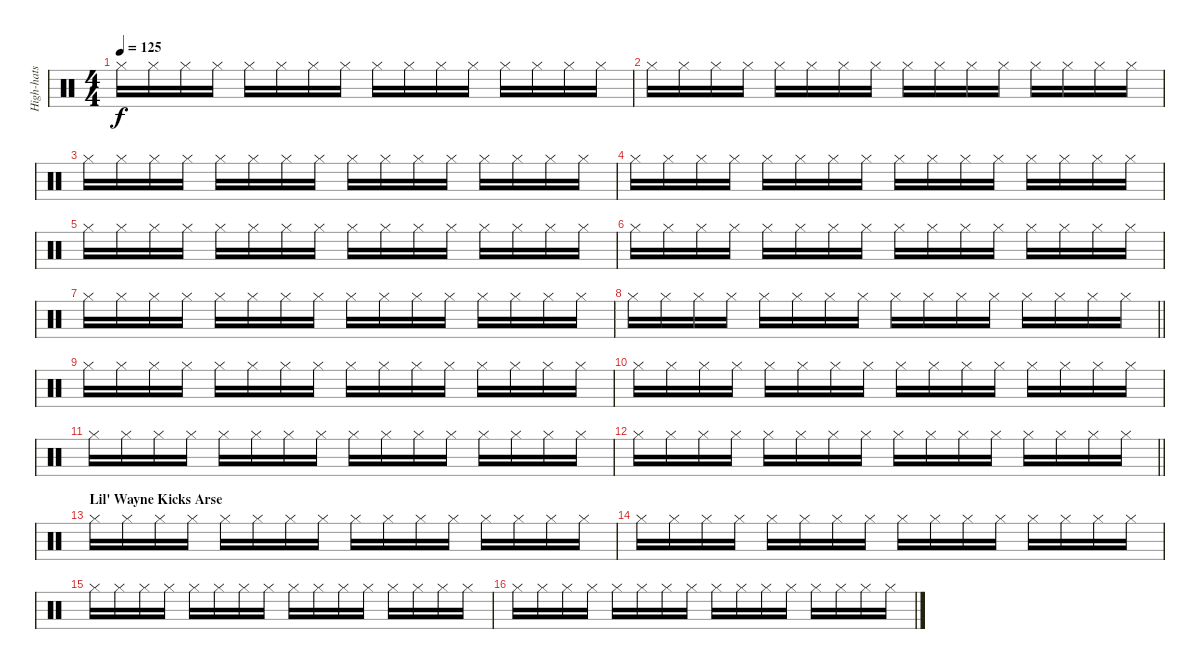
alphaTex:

\track ("High-hats" "High-hats") {instrument percussion}
\staff {score}
\articulation defaults
\ts (4 4)
\tempo 125
\clef neutral
\ks c "Hi-Hat (closed)".16{dy f} "Hi-Hat (closed)".16 "Hi-Hat (closed)".16 "Hi-Hat (closed)".16 "Hi-Hat (closed)".16 "Hi-Hat (closed)".16 "Hi-Hat (closed)".16 "Hi-Hat (closed)".16 "Hi-Hat (closed)".16 "Hi-Hat (closed)".16 "Hi-Hat (closed)".16 "Hi-Hat (closed)".16 "Hi-Hat (closed)".16 "Hi-Hat (closed)".16 "Hi-Hat (closed)".16 "Hi-Hat (closed)".16
|
"Hi-Hat (closed)".16 "Hi-Hat (closed)".16 "Hi-Hat (closed)".16 "Hi-Hat (closed)".16 "Hi-Hat (closed)".16 "Hi-Hat (closed)".16 "Hi-Hat (closed)".16 "Hi-Hat (closed)".16 "Hi-Hat (closed)".16 "Hi-Hat (closed)".16 "Hi-Hat (closed)".16 "Hi-Hat (closed)".16 "Hi-Hat (closed)".16 "Hi-Hat (closed)".16 "Hi-Hat (closed)".16 "Hi-Hat (closed)".16 |
"Hi-Hat (closed)".16 "Hi-Hat (closed)".16 "Hi-Hat (closed)".16 "Hi-Hat (closed)".16 "Hi-Hat (closed)".16 "Hi-Hat (closed)".16 "Hi-Hat (closed)".16 "Hi-Hat (closed)".16 "Hi-Hat (closed)".16 "Hi-Hat (closed)".16 "Hi-Hat (closed)".16 "Hi-Hat (closed)".16 "Hi-Hat (closed)".16 "Hi-Hat (closed)".16 "Hi-Hat (closed)".16 "Hi-Hat (closed)".16 |
"Hi-Hat (closed)".16 "Hi-Hat (closed)".16 "Hi-Hat (closed)".16 "Hi-Hat (closed)".16 "Hi-Hat (closed)".16 "Hi-Hat (closed)".16 "Hi-Hat (closed)".16 "Hi-Hat (closed)".16 "Hi-Hat (closed)".16 "Hi-Hat (closed)".16 "Hi-Hat (closed)".16 "Hi-Hat (closed)".16 "Hi-Hat (closed)".16 "Hi-Hat (closed)".16 "Hi-Hat (closed)".16 "Hi-Hat (closed)".16 |
"Hi-Hat (closed)".16 "Hi-Hat (closed)".16 "Hi-Hat (closed)".16 "Hi-Hat (closed)".16 "Hi-Hat (closed)".16 "Hi-Hat (closed)".16 "Hi-Hat (closed)".16 "Hi-Hat (closed)".16 "Hi-Hat (closed)".16 "Hi-Hat (closed)".16 "Hi-Hat (closed)".16 "Hi-Hat (closed)".16 "Hi-Hat (closed)".16 "Hi-Hat (closed)".16 "Hi-Hat (closed)".16 "Hi-Hat (closed)".16 |
"Hi-Hat (closed)".16 "Hi-Hat (closed)".16 "Hi-Hat (closed)".16 "Hi-Hat (closed)".16 "Hi-Hat (closed)".16 "Hi-Hat (closed)".16 "Hi-Hat (closed)".16 "Hi-Hat (closed)".16 "Hi-Hat (closed)".16 "Hi-Hat (closed)".16 "Hi-Hat (closed)".16 "Hi-Hat (closed)".16 "Hi-Hat (closed)".16 "Hi-Hat (closed)".16 "Hi-Hat (closed)".16 "Hi-Hat (closed)".16 |
"Hi-Hat (closed)".16 "Hi-Hat (closed)".16 "Hi-Hat (closed)".16 "Hi-Hat (closed)".16 "Hi-Hat (closed)".16 "Hi-Hat (closed)".16 "Hi-Hat (closed)".16 "Hi-Hat (closed)".16 "Hi-Hat (closed)".16 "Hi-Hat (closed)".16 "Hi-Hat (closed)".16 "Hi-Hat (closed)".16 "Hi-Hat (closed)".16 "Hi-Hat (closed)".16 "Hi-Hat (closed)".16 "Hi-Hat (closed)".16 |
\barLineRight lightlight "Hi-Hat (closed)".16 "Hi-Hat (closed)".16 "Hi-Hat (closed)".16 "Hi-Hat (closed)".16 "Hi-Hat (closed)".16 "Hi-Hat (closed)".16 "Hi-Hat (closed)".16 "Hi-Hat (closed)".16 "Hi-Hat (closed)".16 "Hi-Hat (closed)".16 "Hi-Hat (closed)".16 "Hi-Hat (closed)".16 "Hi-Hat (closed)".16 "Hi-Hat (closed)".16 "Hi-Hat (closed)".16 "Hi-Hat (closed)".16
|
"Hi-Hat (closed)".16 "Hi-Hat (closed)".16 "Hi-Hat (closed)".16 "Hi-Hat (closed)".16 "Hi-Hat (closed)".16 "Hi-Hat (closed)".16 "Hi-Hat (closed)".16 "Hi-Hat (closed)".16 "Hi-Hat (closed)".16 "Hi-Hat (closed)".16 "Hi-Hat (closed)".16 "Hi-Hat (closed)".16 "Hi-Hat (closed)".16 "Hi-Hat (closed)".16 "Hi-Hat (closed)".16 "Hi-Hat (closed)".16 |
"Hi-Hat (closed)".16 "Hi-Hat (closed)".16 "Hi-Hat (closed)".16 "Hi-Hat (closed)".16 "Hi-Hat (closed)".16 "Hi-Hat (closed)".16 "Hi-Hat (closed)".16 "Hi-Hat (closed)".16 "Hi-Hat (closed)".16 "Hi-Hat (closed)".16 "Hi-Hat (closed)".16 "Hi-Hat (closed)".16 "Hi-Hat (closed)".16 "Hi-Hat (closed)".16 "Hi-Hat (closed)".16 "Hi-Hat (closed)".16 |
"Hi-Hat (closed)".16 "Hi-Hat (closed)".16 "Hi-Hat (closed)".16 "Hi-Hat (closed)".16 "Hi-Hat (closed)".16 "Hi-Hat (closed)".16 "Hi-Hat (closed)".16 "Hi-Hat (closed)".16 "Hi-Hat (closed)".16 "Hi-Hat (closed)".16 "Hi-Hat (closed)".16 "Hi-Hat (closed)".16 "Hi-Hat (closed)".16 "Hi-Hat (closed)".16 "Hi-Hat (closed)".16 "Hi-Hat (closed)".16 |
\barLineRight lightlight "Hi-Hat (closed)".16 "Hi-Hat (closed)".16 "Hi-Hat (closed)".16 "Hi-Hat (closed)".16 "Hi-Hat (closed)".16 "Hi-Hat (closed)".16 "Hi-Hat (closed)".16 "Hi-Hat (closed)".16 "Hi-Hat (closed)".16 "Hi-Hat (closed)".16 "Hi-Hat (closed)".16 "Hi-Hat (closed)".16 "Hi-Hat (closed)".16 "Hi-Hat (closed)".16 "Hi-Hat (closed)".16 "Hi-Hat (closed)".16
|
\section ("" "Lil' Wayne Kicks Arse")
"Hi-Hat (closed)".16 "Hi-Hat (closed)".16 "Hi-Hat (closed)".16 "Hi-Hat (closed)".16 "Hi-Hat (closed)".16 "Hi-Hat (closed)".16 "Hi-Hat (closed)".16 "Hi-Hat (closed)".16 "Hi-Hat (closed)".16 "Hi-Hat (closed)".16 "Hi-Hat (closed)".16 "Hi-Hat (closed)".16 "Hi-Hat (closed)".16 "Hi-Hat (closed)".16 "Hi-Hat (closed)".16 "Hi-Hat (closed)".16 |
"Hi-Hat (closed)".16 "Hi-Hat (closed)".16 "Hi-Hat (closed)".16 "Hi-Hat (closed)".16 "Hi-Hat (closed)".16 "Hi-Hat (closed)".16 "Hi-Hat (closed)".16 "Hi-Hat (closed)".16 "Hi-Hat (closed)".16 "Hi-Hat (closed)".16 "Hi-Hat (closed)".16 "Hi-Hat (closed)".16 "Hi-Hat (closed)".16 "Hi-Hat (closed)".16 "Hi-Hat (closed)".16 "Hi-Hat (closed)".16 |
"Hi-Hat (closed)".16 "Hi-Hat (closed)".16 "Hi-Hat (closed)".16 "Hi-Hat (closed)".16 "Hi-Hat (closed)".16 "Hi-Hat (closed)".16 "Hi-Hat (closed)".16 "Hi-Hat (closed)".16 "Hi-Hat (closed)".16 "Hi-Hat (closed)".16 "Hi-Hat (closed)".16 "Hi-Hat (closed)".16 "Hi-Hat (closed)".16 "Hi-Hat (closed)".16 "Hi-Hat (closed)".16 "Hi-Hat (closed)".16 |
"Hi-Hat (closed)".16 "Hi-Hat (closed)".16 "Hi-Hat (closed)".16 "Hi-Hat (closed)".16 "Hi-Hat (closed)".16 "Hi-Hat (closed)".16 "Hi-Hat (closed)".16 "Hi-Hat (closed)".16 "Hi-Hat (closed)".16 "Hi-Hat (closed)".16 "Hi-Hat (closed)".16 "Hi-Hat (closed)".16 "Hi-Hat (closed)".16 "Hi-Hat (closed)".16 "Hi-Hat (closed)".16 "Hi-Hat (closed)".16
